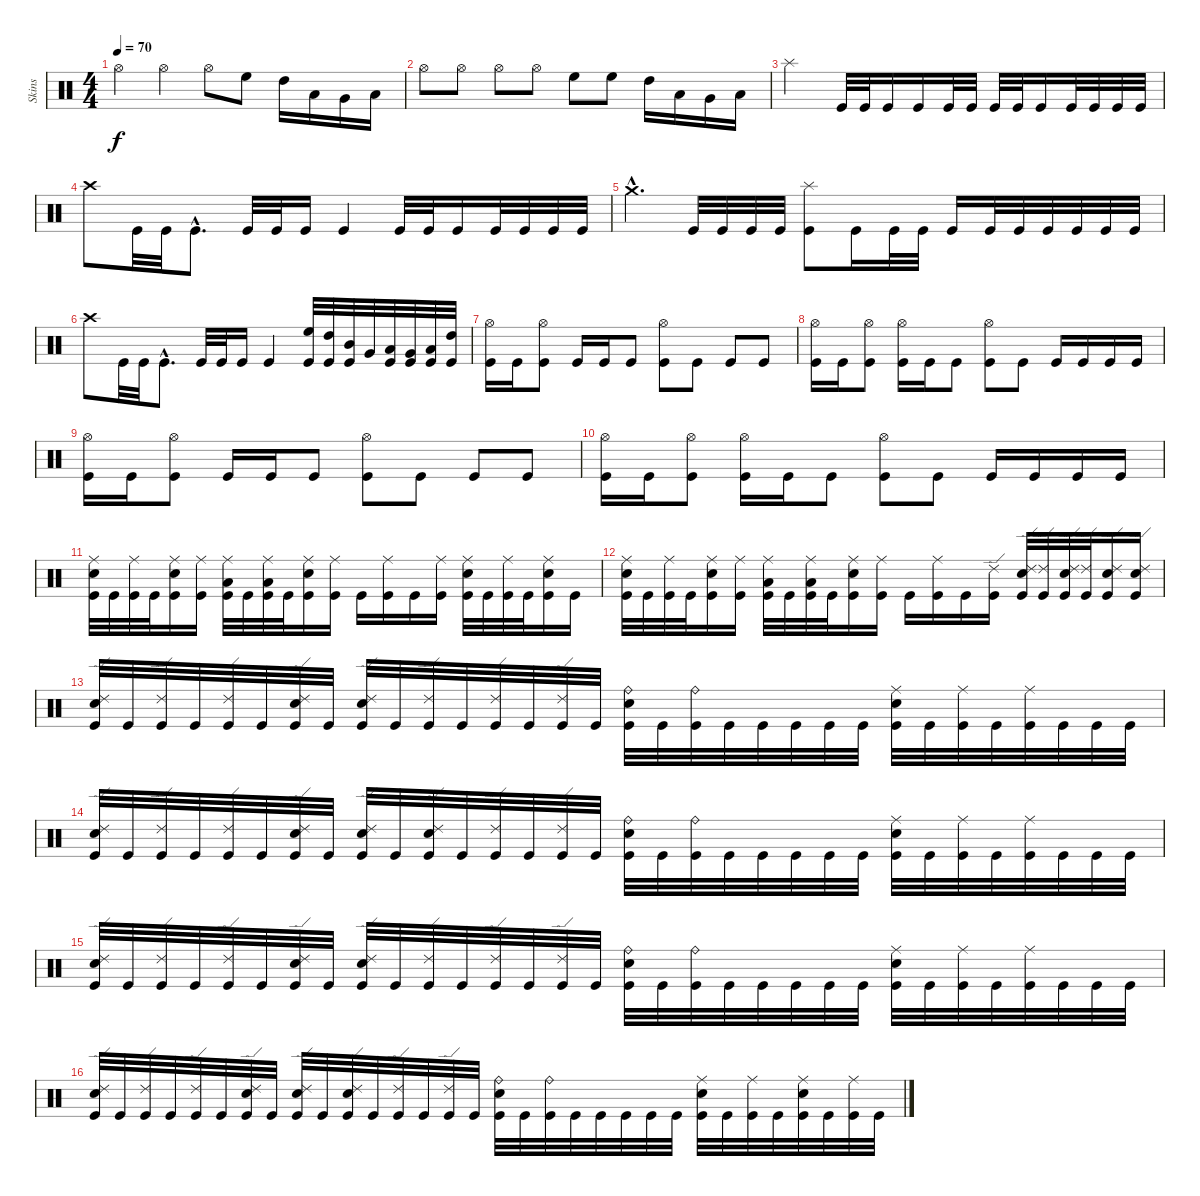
\track ("Skins" "Skins") {instrument percussion}
\staff {score}
\articulation defaults
\ts (4 4)
\tempo 70
\clef neutral
\ks c "Hi-Hat (open)".4{dy f} "Hi-Hat (open)".4 "Hi-Hat (open)".8 "High Floor Tom (hit)".8 "High Tom (hit)".16 "Low Tom (hit)".16 "Very Low Tom (hit)".16 "Low Floor Tom (hit)".16
|
"Hi-Hat (open)".8 "Hi-Hat (open)".8 "Hi-Hat (open)".8 "Hi-Hat (open)".8 "High Floor Tom (hit)".8 "High Floor Tom (hit)".8 "High Tom (hit)".16 "Low Tom (hit)".16 "Very Low Tom (hit)".16 "Low Floor Tom (hit)".16 |
"Splash (hit)".2 "Kick (hit)".32 "Kick (hit)".32 "Kick (hit)".16 "Kick (hit)".16 "Kick (hit)".32 "Kick (hit)".32 "Kick (hit)".32 "Kick (hit)".32 "Kick (hit)".16 "Kick (hit)".32 "Kick (hit)".32 "Kick (hit)".32 "Kick (hit)".32 |
"Crash high (hit)".8 "Kick (hit)".32 "Kick (hit)".32 "Kick (hit)"{hac}.8{d} "Kick (hit)".32 "Kick (hit)".32 "Kick (hit)".16 "Kick (hit)".4 "Kick (hit)".32 "Kick (hit)".32 "Kick (hit)".16 "Kick (hit)".32 "Kick (hit)".32 "Kick (hit)".32 "Kick (hit)".32 |
"Crash medium (hit)"{hac}.4{d} "Kick (hit)".32 "Kick (hit)".32 "Kick (hit)".32 "Kick (hit)".32 ("Splash (hit)" "Kick (hit)").8 "Kick (hit)".16 "Kick (hit)".32 "Kick (hit)".32 "Kick (hit)".16 "Kick (hit)".32 "Kick (hit)".32 "Kick (hit)".32 "Kick (hit)".32 "Kick (hit)".32 "Kick (hit)".32 |
"Crash high (hit)".8 "Kick (hit)".32 "Kick (hit)".32 "Kick (hit)"{hac}.8{d} "Kick (hit)".32 "Kick (hit)".32 "Kick (hit)".16 "Kick (hit)".4 ("High Floor Tom (hit)" "Kick (hit)").32 ("High Tom (hit)" "Kick (hit)").32 ("Mid Tom (hit)" "Kick (hit)").32 "Very Low Tom (hit)".32 ("Low Floor Tom (hit)" "Kick (hit)").32 ("Very Low Tom (hit)" "Kick (hit)").32 ("Low Floor Tom (hit)" "Kick (hit)").32 ("High Tom (hit)" "Kick (hit)").32 |
("Hi-Hat (open)" "Kick (hit)").16 "Kick (hit)".16 ("Hi-Hat (open)" "Kick (hit)").8 "Kick (hit)".16 "Kick (hit)".16 "Kick (hit)".8 ("Hi-Hat (open)" "Kick (hit)").8 "Kick (hit)".8 "Kick (hit)".8 "Kick (hit)".8 |
("Hi-Hat (open)" "Kick (hit)").16 "Kick (hit)".16 ("Hi-Hat (open)" "Kick (hit)").8 ("Hi-Hat (open)" "Kick (hit)").16 "Kick (hit)".16 "Kick (hit)".8 ("Hi-Hat (open)" "Kick (hit)").8 "Kick (hit)".8 "Kick (hit)".16 "Kick (hit)".16 "Kick (hit)".16 "Kick (hit)".16 |
("Hi-Hat (open)" "Kick (hit)").16 "Kick (hit)".16 ("Hi-Hat (open)" "Kick (hit)").8 "Kick (hit)".16 "Kick (hit)".16 "Kick (hit)".8 ("Hi-Hat (open)" "Kick (hit)").8 "Kick (hit)".8 "Kick (hit)".8 "Kick (hit)".8 |
("Hi-Hat (open)" "Kick (hit)").16 "Kick (hit)".16 ("Hi-Hat (open)" "Kick (hit)").8 ("Hi-Hat (open)" "Kick (hit)").16 "Kick (hit)".16 "Kick (hit)".8 ("Hi-Hat (open)" "Kick (hit)").8 "Kick (hit)".8 "Kick (hit)".16 "Kick (hit)".16 "Kick (hit)".16 "Kick (hit)".16 |
("Ride (middle)" "Snare (hit) 2" "Kick (hit)").32 "Kick (hit)".32 ("Ride (middle)" "Kick (hit)").32 "Kick (hit)".32 ("Ride (middle)" "Snare (hit) 2" "Kick (hit)").16 ("Ride (middle)" "Kick (hit)").16 ("Ride (middle)" "Low Floor Tom (hit)" "Kick (hit)").32 "Kick (hit)".32 ("Ride (middle)" "Low Floor Tom (hit)" "Kick (hit)").32 "Kick (hit)".32 ("Ride (middle)" "Snare (hit) 2" "Kick (hit)").16 ("Ride (middle)" "Kick (hit)").16 "Kick (hit)".16 ("Ride (middle)" "Kick (hit)").16 "Kick (hit)".16 ("Ride (middle)" "Kick (hit)").16 ("Ride (middle)" "Snare (hit) 2" "Kick (hit)").32 "Kick (hit)".32 ("Ride (middle)" "Kick (hit)").32 "Kick (hit)".32 ("Ride (middle)" "Snare (hit) 2" "Kick (hit)").16 "Kick (hit)".16 |
("Ride (middle)" "Snare (hit) 2" "Kick (hit)").32 "Kick (hit)".32 ("Ride (middle)" "Kick (hit)").32 "Kick (hit)".32 ("Ride (middle)" "Snare (hit) 2" "Kick (hit)").16 ("Ride (middle)" "Kick (hit)").16 ("Ride (middle)" "Low Floor Tom (hit)" "Kick (hit)").32 "Kick (hit)".32 ("Ride (middle)" "Low Floor Tom (hit)" "Kick (hit)").32 "Kick (hit)".32 ("Ride (middle)" "Snare (hit) 2" "Kick (hit)").16 ("Ride (middle)" "Kick (hit)").16 "Kick (hit)".16 ("Ride (middle)" "Kick (hit)").16 "Kick (hit)".16 ("Ride (edge) 2" "Kick (hit)").16 ("Ride (edge) 2" "Snare (hit) 2" "Kick (hit)").32 ("Ride (edge) 2" "Kick (hit)").32 ("Ride (edge) 2" "Snare (hit) 2" "Kick (hit)").32 ("Ride (edge) 2" "Kick (hit)").32 ("Ride (edge) 2" "Snare (hit) 2" "Kick (hit)").16 ("Ride (edge) 2" "Snare (hit) 2" "Kick (hit)").16 |
("Ride (edge) 2" "Electric Snare (hit)" "Kick (hit)").32 "Kick (hit)".32 ("Ride (edge) 2" "Kick (hit)").32 "Kick (hit)".32 ("Ride (edge) 2" "Kick (hit)").32 "Kick (hit)".32 ("Ride (edge) 2" "Electric Snare (hit)" "Kick (hit)").32 "Kick (hit)".32 ("Ride (edge) 2" "Electric Snare (hit)" "Kick (hit)").32 "Kick (hit)".32 ("Ride (edge) 2" "Kick (hit)").32 "Kick (hit)".32 ("Ride (edge) 2" "Kick (hit)").32 "Kick (hit)".32 ("Ride (edge) 2" "Kick (hit)").32 "Kick (hit)".32 ("Ride (bell)" "Electric Snare (hit)" "Kick (hit)").32 "Kick (hit)".32 ("Ride (bell)" "Kick (hit)").32 "Kick (hit)".32 "Kick (hit)".32 "Kick (hit)".32 "Kick (hit)".32 "Kick (hit)".32 ("Ride (middle)" "Electric Snare (hit)" "Kick (hit)").32 "Kick (hit)".32 ("Ride (middle)" "Kick (hit)").32 "Kick (hit)".32 ("Ride (middle)" "Kick (hit)").32 "Kick (hit)".32 "Kick (hit)".32 "Kick (hit)".32 |
("Ride (edge) 2" "Electric Snare (hit)" "Kick (hit)").32 "Kick (hit)".32 ("Ride (edge) 2" "Kick (hit)").32 "Kick (hit)".32 ("Ride (edge) 2" "Kick (hit)").32 "Kick (hit)".32 ("Ride (edge) 2" "Electric Snare (hit)" "Kick (hit)").32 "Kick (hit)".32 ("Ride (edge) 2" "Electric Snare (hit)" "Kick (hit)").32 "Kick (hit)".32 ("Ride (edge) 2" "Electric Snare (hit)" "Kick (hit)").32 "Kick (hit)".32 ("Ride (edge) 2" "Kick (hit)").32 "Kick (hit)".32 ("Ride (edge) 2" "Kick (hit)").32 "Kick (hit)".32 ("Ride (bell)" "Electric Snare (hit)" "Kick (hit)").32 "Kick (hit)".32 ("Ride (bell)" "Kick (hit)").32 "Kick (hit)".32 "Kick (hit)".32 "Kick (hit)".32 "Kick (hit)".32 "Kick (hit)".32 ("Ride (middle)" "Electric Snare (hit)" "Kick (hit)").32 "Kick (hit)".32 ("Ride (middle)" "Kick (hit)").32 "Kick (hit)".32 ("Ride (middle)" "Kick (hit)").32 "Kick (hit)".32 "Kick (hit)".32 "Kick (hit)".32 |
("Ride (edge) 2" "Snare (hit) 2" "Kick (hit)").32 "Kick (hit)".32 ("Ride (edge) 2" "Kick (hit)").32 "Kick (hit)".32 ("Ride (edge) 2" "Kick (hit)").32 "Kick (hit)".32 ("Ride (edge) 2" "Snare (hit) 2" "Kick (hit)").32 "Kick (hit)".32 ("Ride (edge) 2" "Snare (hit) 2" "Kick (hit)").32 "Kick (hit)".32 ("Ride (edge) 2" "Kick (hit)").32 "Kick (hit)".32 ("Ride (edge) 2" "Kick (hit)").32 "Kick (hit)".32 ("Ride (edge) 2" "Kick (hit)").32 "Kick (hit)".32 ("Ride (bell)" "Snare (hit) 2" "Kick (hit)").32 "Kick (hit)".32 ("Ride (bell)" "Kick (hit)").32 "Kick (hit)".32 "Kick (hit)".32 "Kick (hit)".32 "Kick (hit)".32 "Kick (hit)".32 ("Ride (middle)" "Snare (hit) 2" "Kick (hit)").32 "Kick (hit)".32 ("Ride (middle)" "Kick (hit)").32 "Kick (hit)".32 ("Ride (middle)" "Kick (hit)").32 "Kick (hit)".32 "Kick (hit)".32 "Kick (hit)".32 |
("Ride (edge) 2" "Snare (hit) 2" "Kick (hit)").32 "Kick (hit)".32 ("Ride (edge) 2" "Kick (hit)").32 "Kick (hit)".32 ("Ride (edge) 2" "Kick (hit)").32 "Kick (hit)".32 ("Ride (edge) 2" "Snare (hit) 2" "Kick (hit)").32 "Kick (hit)".32 ("Ride (edge) 2" "Snare (hit) 2" "Kick (hit)").32 "Kick (hit)".32 ("Ride (edge) 2" "Snare (hit) 2" "Kick (hit)").32 "Kick (hit)".32 ("Ride (edge) 2" "Kick (hit)").32 "Kick (hit)".32 ("Ride (edge) 2" "Kick (hit)").32 "Kick (hit)".32 ("Ride (bell)" "Snare (hit) 2" "Kick (hit)").32 "Kick (hit)".32 ("Ride (bell)" "Kick (hit)").32 "Kick (hit)".32 "Kick (hit)".32 "Kick (hit)".32 "Kick (hit)".32 "Kick (hit)".32 ("Ride (middle)" "Electric Snare (hit)" "Kick (hit)").32 "Kick (hit)".32 ("Ride (middle)" "Kick (hit)").32 "Kick (hit)".32 ("Ride (middle)" "Electric Snare (hit)" "Kick (hit)").32 "Kick (hit)".32 ("Ride (middle)" "Kick (hit)").32 "Kick (hit)".32
